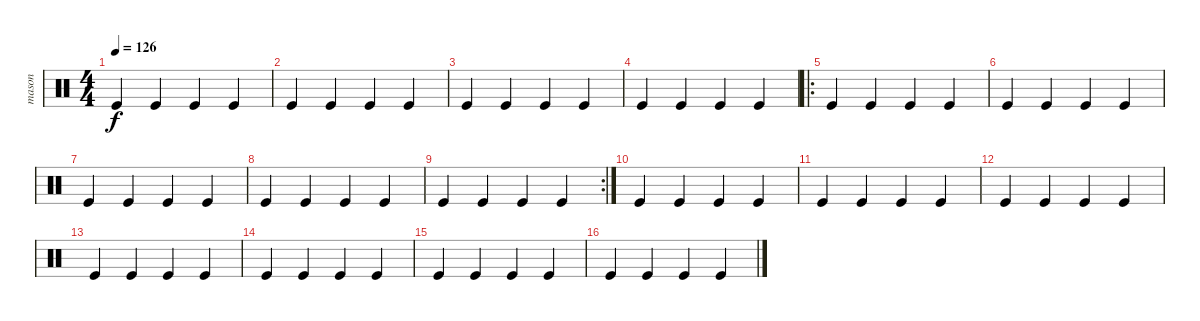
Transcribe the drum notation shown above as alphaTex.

\track ("mason" "mason") {instrument percussion}
\staff {score}
\articulation defaults
\ts (4 4)
\tempo 126
\clef neutral
\ks c "Kick (hit)".4{dy f} "Kick (hit)".4 "Kick (hit)".4 "Kick (hit)".4
|
"Kick (hit)".4 "Kick (hit)".4 "Kick (hit)".4 "Kick (hit)".4 |
"Kick (hit)".4 "Kick (hit)".4 "Kick (hit)".4 "Kick (hit)".4 |
"Kick (hit)".4 "Kick (hit)".4 "Kick (hit)".4 "Kick (hit)".4 |
\ro "Kick (hit)".4 "Kick (hit)".4 "Kick (hit)".4 "Kick (hit)".4
|
"Kick (hit)".4 "Kick (hit)".4 "Kick (hit)".4 "Kick (hit)".4 |
"Kick (hit)".4 "Kick (hit)".4 "Kick (hit)".4 "Kick (hit)".4 |
"Kick (hit)".4 "Kick (hit)".4 "Kick (hit)".4 "Kick (hit)".4 |
\rc 2 "Kick (hit)".4 "Kick (hit)".4 "Kick (hit)".4 "Kick (hit)".4
|
"Kick (hit)".4 "Kick (hit)".4 "Kick (hit)".4 "Kick (hit)".4 |
"Kick (hit)".4 "Kick (hit)".4 "Kick (hit)".4 "Kick (hit)".4 |
"Kick (hit)".4 "Kick (hit)".4 "Kick (hit)".4 "Kick (hit)".4 |
"Kick (hit)".4 "Kick (hit)".4 "Kick (hit)".4 "Kick (hit)".4 |
"Kick (hit)".4 "Kick (hit)".4 "Kick (hit)".4 "Kick (hit)".4 |
"Kick (hit)".4 "Kick (hit)".4 "Kick (hit)".4 "Kick (hit)".4 |
"Kick (hit)".4 "Kick (hit)".4 "Kick (hit)".4 "Kick (hit)".4
